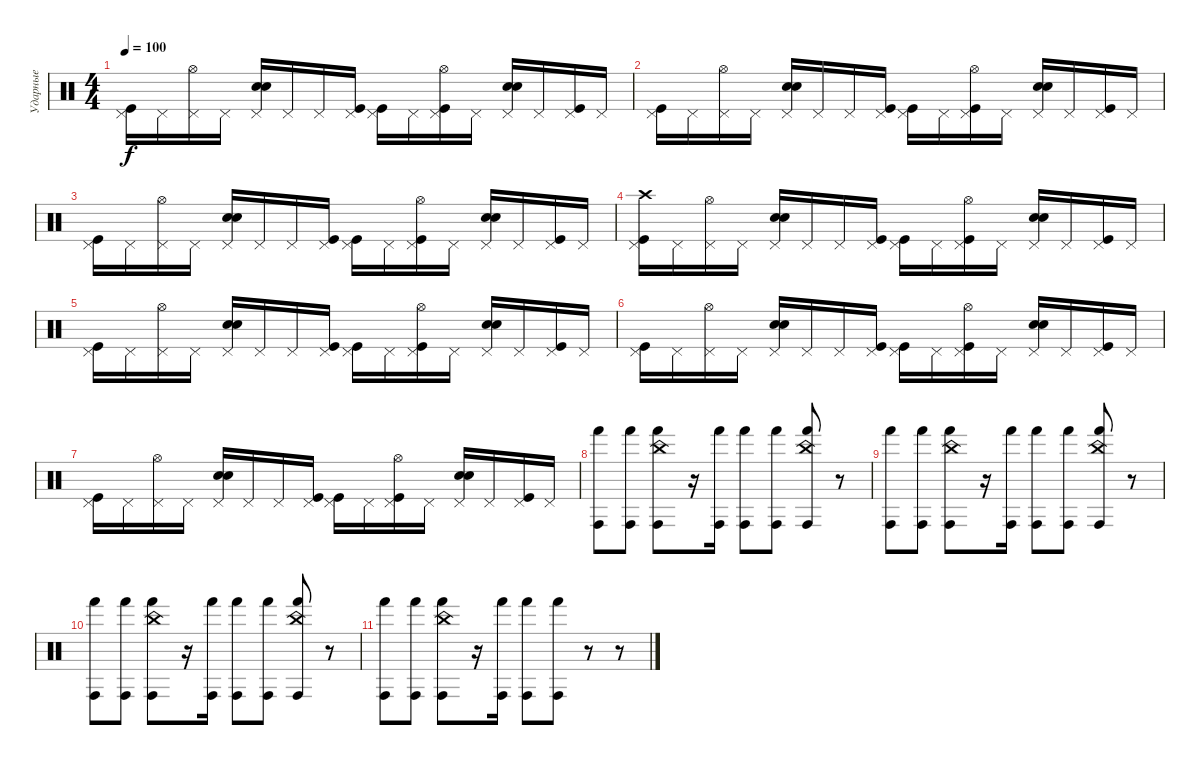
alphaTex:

\track ("Ударные" "Ударные") {instrument percussion}
\staff {score}
\articulation defaults
\ts (4 4)
\tempo 100
\clef neutral
\ks c
("Kick (hit)" "Pedal Hi-Hat (hit)").16{dy f} "Pedal Hi-Hat (hit)".16 ("Pedal Hi-Hat (hit)" "Hi-Hat (open)").16 "Pedal Hi-Hat (hit)".16 ("Pedal Hi-Hat (hit)" "Electric Snare (hit)" "Hand Clap (hit)").16 "Pedal Hi-Hat (hit)".16 "Pedal Hi-Hat (hit)".16 ("Kick (hit)" "Pedal Hi-Hat (hit)").16 ("Kick (hit)" "Pedal Hi-Hat (hit)").16 "Pedal Hi-Hat (hit)".16 ("Kick (hit)" "Pedal Hi-Hat (hit)" "Hi-Hat (open)").16 "Pedal Hi-Hat (hit)".16 ("Pedal Hi-Hat (hit)" "Electric Snare (hit)" "Hand Clap (hit)").16 "Pedal Hi-Hat (hit)".16 ("Kick (hit)" "Pedal Hi-Hat (hit)").16 "Pedal Hi-Hat (hit)".16 |
("Kick (hit)" "Pedal Hi-Hat (hit)").16 "Pedal Hi-Hat (hit)".16 ("Pedal Hi-Hat (hit)" "Hi-Hat (open)").16 "Pedal Hi-Hat (hit)".16 ("Pedal Hi-Hat (hit)" "Electric Snare (hit)" "Hand Clap (hit)").16 "Pedal Hi-Hat (hit)".16 "Pedal Hi-Hat (hit)".16 ("Kick (hit)" "Pedal Hi-Hat (hit)").16 ("Kick (hit)" "Pedal Hi-Hat (hit)").16 "Pedal Hi-Hat (hit)".16 ("Kick (hit)" "Pedal Hi-Hat (hit)" "Hi-Hat (open)").16 "Pedal Hi-Hat (hit)".16 ("Pedal Hi-Hat (hit)" "Electric Snare (hit)" "Hand Clap (hit)").16 "Pedal Hi-Hat (hit)".16 ("Kick (hit)" "Pedal Hi-Hat (hit)").16 "Pedal Hi-Hat (hit)".16 |
("Kick (hit)" "Pedal Hi-Hat (hit)").16 "Pedal Hi-Hat (hit)".16 ("Pedal Hi-Hat (hit)" "Hi-Hat (open)").16 "Pedal Hi-Hat (hit)".16 ("Pedal Hi-Hat (hit)" "Electric Snare (hit)" "Hand Clap (hit)").16 "Pedal Hi-Hat (hit)".16 "Pedal Hi-Hat (hit)".16 ("Kick (hit)" "Pedal Hi-Hat (hit)").16 ("Kick (hit)" "Pedal Hi-Hat (hit)").16 "Pedal Hi-Hat (hit)".16 ("Kick (hit)" "Pedal Hi-Hat (hit)" "Hi-Hat (open)").16 "Pedal Hi-Hat (hit)".16 ("Pedal Hi-Hat (hit)" "Electric Snare (hit)" "Hand Clap (hit)").16 "Pedal Hi-Hat (hit)".16 ("Kick (hit)" "Pedal Hi-Hat (hit)").16 "Pedal Hi-Hat (hit)".16 |
("Kick (hit)" "Pedal Hi-Hat (hit)" "Crash high (hit)").16 "Pedal Hi-Hat (hit)".16 ("Pedal Hi-Hat (hit)" "Hi-Hat (open)").16 "Pedal Hi-Hat (hit)".16 ("Pedal Hi-Hat (hit)" "Electric Snare (hit)" "Hand Clap (hit)").16 "Pedal Hi-Hat (hit)".16 "Pedal Hi-Hat (hit)".16 ("Kick (hit)" "Pedal Hi-Hat (hit)").16 ("Kick (hit)" "Pedal Hi-Hat (hit)").16 "Pedal Hi-Hat (hit)".16 ("Kick (hit)" "Pedal Hi-Hat (hit)" "Hi-Hat (open)").16 "Pedal Hi-Hat (hit)".16 ("Pedal Hi-Hat (hit)" "Electric Snare (hit)" "Hand Clap (hit)").16 "Pedal Hi-Hat (hit)".16 ("Kick (hit)" "Pedal Hi-Hat (hit)").16 "Pedal Hi-Hat (hit)".16 |
("Kick (hit)" "Pedal Hi-Hat (hit)").16 "Pedal Hi-Hat (hit)".16 ("Pedal Hi-Hat (hit)" "Hi-Hat (open)").16 "Pedal Hi-Hat (hit)".16 ("Pedal Hi-Hat (hit)" "Electric Snare (hit)" "Hand Clap (hit)").16 "Pedal Hi-Hat (hit)".16 "Pedal Hi-Hat (hit)".16 ("Kick (hit)" "Pedal Hi-Hat (hit)").16 ("Kick (hit)" "Pedal Hi-Hat (hit)").16 "Pedal Hi-Hat (hit)".16 ("Kick (hit)" "Pedal Hi-Hat (hit)" "Hi-Hat (open)").16 "Pedal Hi-Hat (hit)".16 ("Pedal Hi-Hat (hit)" "Electric Snare (hit)" "Hand Clap (hit)").16 "Pedal Hi-Hat (hit)".16 ("Kick (hit)" "Pedal Hi-Hat (hit)").16 "Pedal Hi-Hat (hit)".16 |
("Kick (hit)" "Pedal Hi-Hat (hit)").16 "Pedal Hi-Hat (hit)".16 ("Pedal Hi-Hat (hit)" "Hi-Hat (open)").16 "Pedal Hi-Hat (hit)".16 ("Pedal Hi-Hat (hit)" "Electric Snare (hit)" "Hand Clap (hit)").16 "Pedal Hi-Hat (hit)".16 "Pedal Hi-Hat (hit)".16 ("Kick (hit)" "Pedal Hi-Hat (hit)").16 ("Kick (hit)" "Pedal Hi-Hat (hit)").16 "Pedal Hi-Hat (hit)".16 ("Kick (hit)" "Pedal Hi-Hat (hit)" "Hi-Hat (open)").16 "Pedal Hi-Hat (hit)".16 ("Pedal Hi-Hat (hit)" "Electric Snare (hit)" "Hand Clap (hit)").16 "Pedal Hi-Hat (hit)".16 ("Kick (hit)" "Pedal Hi-Hat (hit)").16 "Pedal Hi-Hat (hit)".16 |
("Kick (hit)" "Pedal Hi-Hat (hit)").16 "Pedal Hi-Hat (hit)".16 ("Pedal Hi-Hat (hit)" "Hi-Hat (open)").16 "Pedal Hi-Hat (hit)".16 ("Pedal Hi-Hat (hit)" "Electric Snare (hit)" "Hand Clap (hit)").16 "Pedal Hi-Hat (hit)".16 "Pedal Hi-Hat (hit)".16 ("Kick (hit)" "Pedal Hi-Hat (hit)").16 ("Kick (hit)" "Pedal Hi-Hat (hit)").16 "Pedal Hi-Hat (hit)".16 ("Kick (hit)" "Pedal Hi-Hat (hit)" "Hi-Hat (open)").16 "Pedal Hi-Hat (hit)".16 ("Pedal Hi-Hat (hit)" "Electric Snare (hit)" "Hand Clap (hit)").16 "Pedal Hi-Hat (hit)".16 ("Kick (hit)" "Pedal Hi-Hat (hit)").16 "Pedal Hi-Hat (hit)".16 |
("Conga high (hit)" "Hand (hit)").8 ("Conga high (hit)" "Hand (hit)").8 ("Conga high (hit)" "Hand (hit)" "China (hit)").8 r.16 ("Conga high (hit)" "Hand (hit)").16 ("Conga high (hit)" "Hand (hit)").8 ("Conga high (hit)" "Hand (hit)").8 ("Conga high (hit)" "Hand (hit)" "China (hit)").8 r.8 |
("Conga high (hit)" "Hand (hit)").8 ("Conga high (hit)" "Hand (hit)").8 ("Conga high (hit)" "Hand (hit)" "China (hit)").8 r.16 ("Conga high (hit)" "Hand (hit)").16 ("Conga high (hit)" "Hand (hit)").8 ("Conga high (hit)" "Hand (hit)").8 ("Conga high (hit)" "Hand (hit)" "China (hit)").8 r.8 |
("Conga high (hit)" "Hand (hit)").8 ("Conga high (hit)" "Hand (hit)").8 ("Conga high (hit)" "Hand (hit)" "China (hit)").8 r.16 ("Conga high (hit)" "Hand (hit)").16 ("Conga high (hit)" "Hand (hit)").8 ("Conga high (hit)" "Hand (hit)").8 ("Conga high (hit)" "Hand (hit)" "China (hit)").8 r.8 |
("Conga high (hit)" "Hand (hit)").8 ("Conga high (hit)" "Hand (hit)").8 ("Conga high (hit)" "Hand (hit)" "China (hit)").8 r.16 ("Conga high (hit)" "Hand (hit)").16 ("Conga high (hit)" "Hand (hit)").8 ("Conga high (hit)" "Hand (hit)").8 r.8 r.8
